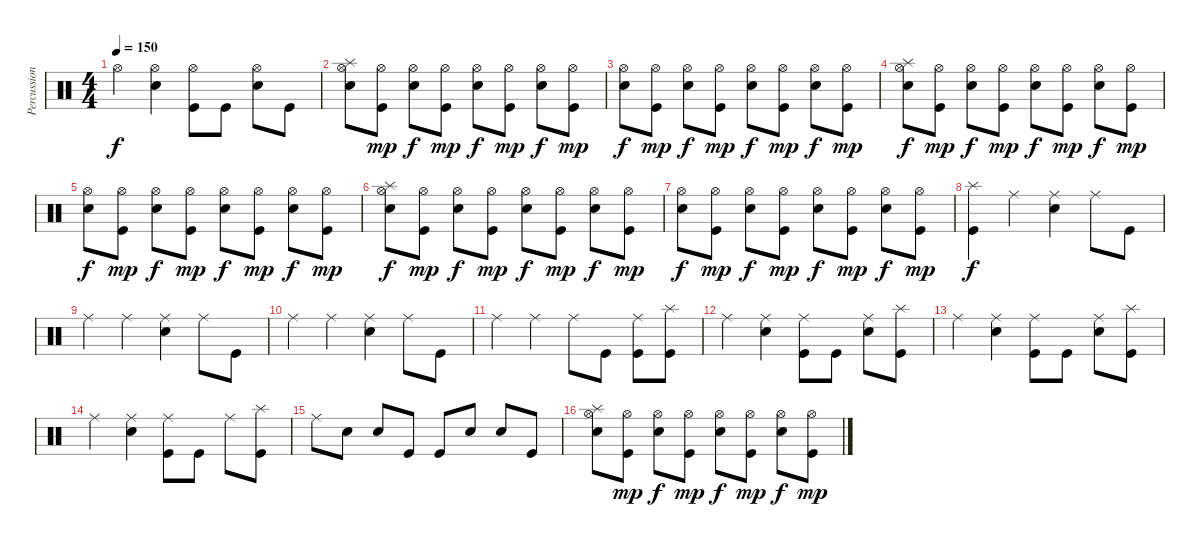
\track ("Percussions" "Percussion") {instrument percussion}
\staff {score}
\articulation defaults
\ts (4 4)
\tempo 150
\clef neutral
\ks c "Hi-Hat (open)".4{dy f}
("Hi-Hat (open)" "Electric Snare (hit)").4 ("Hi-Hat (open)" "Kick (hit)").8 "Kick (hit)".8 ("Hi-Hat (open)" "Electric Snare (hit)").8 "Kick (hit)".8 |
("Splash (hit)" "Hi-Hat (open)" "Electric Snare (hit)").8 ("Hi-Hat (open)" "Kick (hit)").8{dy mp} ("Hi-Hat (open)" "Electric Snare (hit)").8{dy f} ("Hi-Hat (open)" "Kick (hit)").8{dy mp} ("Hi-Hat (open)" "Electric Snare (hit)").8{dy f} ("Hi-Hat (open)" "Kick (hit)").8{dy mp} ("Hi-Hat (open)" "Electric Snare (hit)").8{dy f} ("Hi-Hat (open)" "Kick (hit)").8{dy mp} |
("Hi-Hat (open)" "Electric Snare (hit)").8{dy f} ("Hi-Hat (open)" "Kick (hit)").8{dy mp} ("Hi-Hat (open)" "Electric Snare (hit)").8{dy f} ("Hi-Hat (open)" "Kick (hit)").8{dy mp} ("Hi-Hat (open)" "Electric Snare (hit)").8{dy f} ("Hi-Hat (open)" "Kick (hit)").8{dy mp} ("Hi-Hat (open)" "Electric Snare (hit)").8{dy f} ("Hi-Hat (open)" "Kick (hit)").8{dy mp} |
("Splash (hit)" "Hi-Hat (open)" "Electric Snare (hit)").8{dy f} ("Hi-Hat (open)" "Kick (hit)").8{dy mp} ("Hi-Hat (open)" "Electric Snare (hit)").8{dy f} ("Hi-Hat (open)" "Kick (hit)").8{dy mp} ("Hi-Hat (open)" "Electric Snare (hit)").8{dy f} ("Hi-Hat (open)" "Kick (hit)").8{dy mp} ("Hi-Hat (open)" "Electric Snare (hit)").8{dy f} ("Hi-Hat (open)" "Kick (hit)").8{dy mp} |
("Hi-Hat (open)" "Electric Snare (hit)").8{dy f} ("Hi-Hat (open)" "Kick (hit)").8{dy mp} ("Hi-Hat (open)" "Electric Snare (hit)").8{dy f} ("Hi-Hat (open)" "Kick (hit)").8{dy mp} ("Hi-Hat (open)" "Electric Snare (hit)").8{dy f} ("Hi-Hat (open)" "Kick (hit)").8{dy mp} ("Hi-Hat (open)" "Electric Snare (hit)").8{dy f} ("Hi-Hat (open)" "Kick (hit)").8{dy mp} |
("Splash (hit)" "Hi-Hat (open)" "Electric Snare (hit)").8{dy f} ("Hi-Hat (open)" "Kick (hit)").8{dy mp} ("Hi-Hat (open)" "Electric Snare (hit)").8{dy f} ("Hi-Hat (open)" "Kick (hit)").8{dy mp} ("Hi-Hat (open)" "Electric Snare (hit)").8{dy f} ("Hi-Hat (open)" "Kick (hit)").8{dy mp} ("Hi-Hat (open)" "Electric Snare (hit)").8{dy f} ("Hi-Hat (open)" "Kick (hit)").8{dy mp} |
("Hi-Hat (open)" "Electric Snare (hit)").8{dy f} ("Hi-Hat (open)" "Kick (hit)").8{dy mp} ("Hi-Hat (open)" "Electric Snare (hit)").8{dy f} ("Hi-Hat (open)" "Kick (hit)").8{dy mp} ("Hi-Hat (open)" "Electric Snare (hit)").8{dy f} ("Hi-Hat (open)" "Kick (hit)").8{dy mp} ("Hi-Hat (open)" "Electric Snare (hit)").8{dy f} ("Hi-Hat (open)" "Kick (hit)").8{dy mp} |
("Splash (hit)" "Kick (hit)").4{dy f} "Ride (middle)".4 ("Ride (middle)" "Electric Snare (hit)").4 "Ride (middle)".8 "Kick (hit)".8 |
"Ride (middle)".4 "Ride (middle)".4 ("Ride (middle)" "Electric Snare (hit)").4 "Ride (middle)".8 "Kick (hit)".8 |
"Ride (middle)".4 "Ride (middle)".4 ("Ride (middle)" "Electric Snare (hit)").4 "Ride (middle)".8 "Kick (hit)".8 |
"Ride (middle)".4 "Ride (middle)".4 "Ride (middle)".8 "Kick (hit)".8 ("Ride (middle)" "Kick (hit)").8 ("Splash (hit)" "Kick (hit)").8 |
"Ride (middle)".4 ("Ride (middle)" "Electric Snare (hit)").4 ("Ride (middle)" "Kick (hit)").8 "Kick (hit)".8 ("Ride (middle)" "Electric Snare (hit)").8 ("Splash (hit)" "Kick (hit)").8 |
"Ride (middle)".4 ("Ride (middle)" "Electric Snare (hit)").4 ("Ride (middle)" "Kick (hit)").8 "Kick (hit)".8 ("Ride (middle)" "Electric Snare (hit)").8 ("Splash (hit)" "Kick (hit)").8 |
"Ride (middle)".4 ("Ride (middle)" "Electric Snare (hit)").4 ("Ride (middle)" "Kick (hit)").8 "Kick (hit)".8 "Ride (middle)".8 ("Splash (hit)" "Kick (hit)").8 |
"Ride (middle)".8 "Electric Snare (hit)".8 "Electric Snare (hit)".8 "Kick (hit)".8 "Kick (hit)".8 "Electric Snare (hit)".8 "Electric Snare (hit)".8 "Kick (hit)".8 |
("Splash (hit)" "Hi-Hat (open)" "Electric Snare (hit)").8 ("Hi-Hat (open)" "Kick (hit)").8{dy mp} ("Hi-Hat (open)" "Electric Snare (hit)").8{dy f} ("Hi-Hat (open)" "Kick (hit)").8{dy mp} ("Hi-Hat (open)" "Electric Snare (hit)").8{dy f} ("Hi-Hat (open)" "Kick (hit)").8{dy mp} ("Hi-Hat (open)" "Electric Snare (hit)").8{dy f} ("Hi-Hat (open)" "Kick (hit)").8{dy mp}
